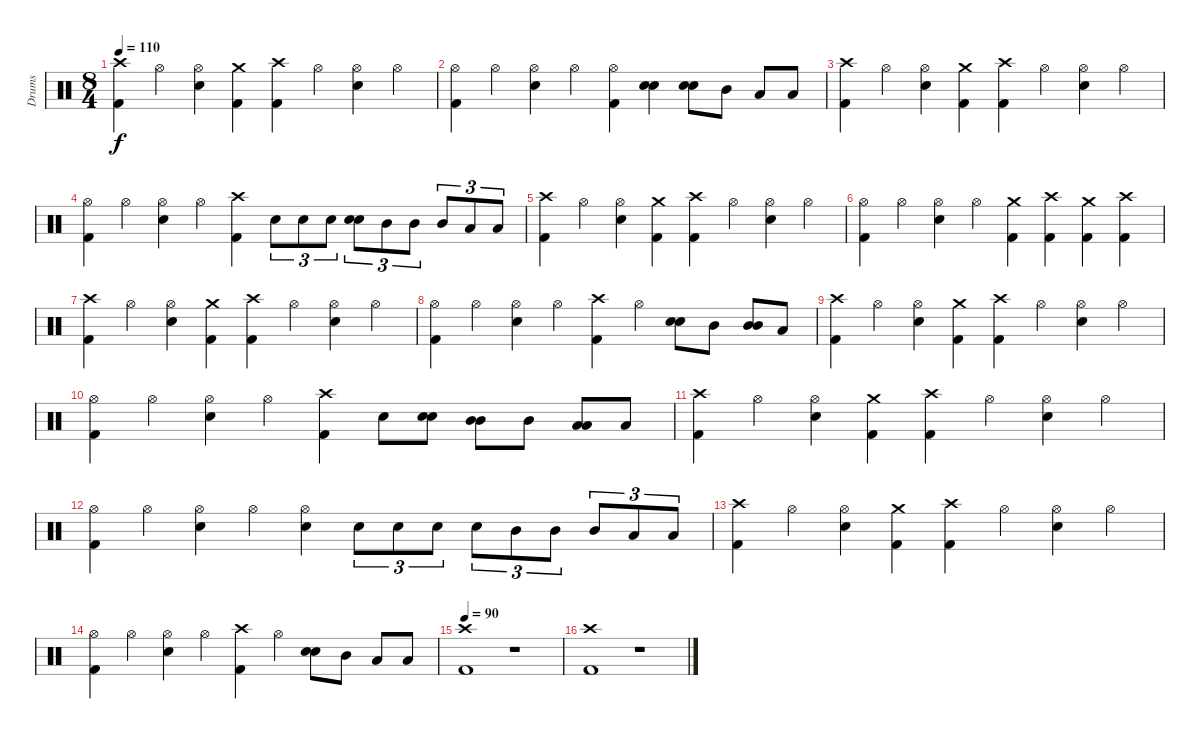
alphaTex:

\track ("Drums" "Drums") {instrument percussion}
\staff {score}
\articulation defaults
\ts (8 4)
\tempo 110
\clef neutral
\ks c
("Crash high (hit)" "Kick (hit) 2").4{dy f} "Hi-Hat (open)".4 ("Hi-Hat (open)" "Electric Snare (hit)").4 ("Crash medium (hit)" "Kick (hit) 2").4 ("Crash high (hit)" "Kick (hit) 2").4 "Hi-Hat (open)".4 ("Hi-Hat (open)" "Electric Snare (hit)").4 "Hi-Hat (open)".4 |
("Hi-Hat (open)" "Kick (hit) 2").4 "Hi-Hat (open)".4 ("Hi-Hat (open)" "Electric Snare (hit)").4 "Hi-Hat (open)".4 ("Hi-Hat (open)" "Kick (hit) 2").4 ("Electric Snare (hit)" "Electric Snare (hit)").4{bu 60} ("Electric Snare (hit)" "Electric Snare (hit)").8{bu 60} "Mid Tom (hit)".8 "Low Tom (hit)".8 "Low Tom (hit)".8 |
("Crash high (hit)" "Kick (hit) 2").4 "Hi-Hat (open)".4 ("Hi-Hat (open)" "Electric Snare (hit)").4 ("Crash medium (hit)" "Kick (hit) 2").4 ("Crash high (hit)" "Kick (hit) 2").4 "Hi-Hat (open)".4 ("Hi-Hat (open)" "Electric Snare (hit)").4 "Hi-Hat (open)".4 |
("Hi-Hat (open)" "Kick (hit) 2").4 "Hi-Hat (open)".4 ("Hi-Hat (open)" "Electric Snare (hit)").4 "Hi-Hat (open)".4 ("Crash high (hit)" "Kick (hit) 2").4 "Electric Snare (hit)".8{tu (3 2)} "Electric Snare (hit)".8{tu (3 2)} "Electric Snare (hit)".8{tu (3 2)} ("Electric Snare (hit)" "Electric Snare (hit)").8{tu (3 2) bu 60} "Mid Tom (hit)".8{tu (3 2)} "Mid Tom (hit)".8{tu (3 2)} "Mid Tom (hit)".8{tu (3 2)} "Low Tom (hit)".8{tu (3 2)} "Low Tom (hit)".8{tu (3 2)} |
("Crash high (hit)" "Kick (hit) 2").4 "Hi-Hat (open)".4 ("Hi-Hat (open)" "Electric Snare (hit)").4 ("Crash medium (hit)" "Kick (hit) 2").4 ("Crash high (hit)" "Kick (hit) 2").4 "Hi-Hat (open)".4 ("Hi-Hat (open)" "Electric Snare (hit)").4 "Hi-Hat (open)".4 |
("Hi-Hat (open)" "Kick (hit) 2").4 "Hi-Hat (open)".4 ("Hi-Hat (open)" "Electric Snare (hit)").4 "Hi-Hat (open)".4 ("Crash medium (hit)" "Kick (hit) 2").4 ("Crash high (hit)" "Kick (hit) 2").4 ("Crash medium (hit)" "Kick (hit) 2").4 ("Crash high (hit)" "Kick (hit) 2").4 |
("Crash high (hit)" "Kick (hit) 2").4 "Hi-Hat (open)".4 ("Hi-Hat (open)" "Electric Snare (hit)").4 ("Crash medium (hit)" "Kick (hit) 2").4 ("Crash high (hit)" "Kick (hit) 2").4 "Hi-Hat (open)".4 ("Hi-Hat (open)" "Electric Snare (hit)").4 "Hi-Hat (open)".4 |
("Hi-Hat (open)" "Kick (hit) 2").4 "Hi-Hat (open)".4 ("Hi-Hat (open)" "Electric Snare (hit)").4 "Hi-Hat (open)".4 ("Crash high (hit)" "Kick (hit) 2").4 "Hi-Hat (open)".4 ("Electric Snare (hit)" "Electric Snare (hit)").8{bu 60} "Mid Tom (hit)".8 ("Mid Tom (hit)" "Mid Tom (hit)").8{bu 60} "Low Tom (hit)".8 |
("Crash high (hit)" "Kick (hit) 2").4 "Hi-Hat (open)".4 ("Hi-Hat (open)" "Electric Snare (hit)").4 ("Crash medium (hit)" "Kick (hit) 2").4 ("Crash high (hit)" "Kick (hit) 2").4 "Hi-Hat (open)".4 ("Hi-Hat (open)" "Electric Snare (hit)").4 "Hi-Hat (open)".4 |
("Hi-Hat (open)" "Kick (hit) 2").4 "Hi-Hat (open)".4 ("Hi-Hat (open)" "Electric Snare (hit)").4 "Hi-Hat (open)".4 ("Crash high (hit)" "Kick (hit) 2").4 "Electric Snare (hit)".8 ("Electric Snare (hit)" "Electric Snare (hit)").8{bu 60} ("Mid Tom (hit)" "Mid Tom (hit)").8{bu 60} "Mid Tom (hit)".8 ("Low Tom (hit)" "Low Tom (hit)").8{bu 60} "Low Tom (hit)".8 |
("Crash high (hit)" "Kick (hit) 2").4 "Hi-Hat (open)".4 ("Hi-Hat (open)" "Electric Snare (hit)").4 ("Crash medium (hit)" "Kick (hit) 2").4 ("Crash high (hit)" "Kick (hit) 2").4 "Hi-Hat (open)".4 ("Hi-Hat (open)" "Electric Snare (hit)").4 "Hi-Hat (open)".4 |
("Hi-Hat (open)" "Kick (hit) 2").4 "Hi-Hat (open)".4 ("Hi-Hat (open)" "Electric Snare (hit)").4 "Hi-Hat (open)".4 ("Hi-Hat (open)" "Electric Snare (hit)").4 "Electric Snare (hit)".8{tu (3 2)} "Electric Snare (hit)".8{tu (3 2)} "Electric Snare (hit)".8{tu (3 2)} "Electric Snare (hit)".8{tu (3 2)} "Mid Tom (hit)".8{tu (3 2)} "Mid Tom (hit)".8{tu (3 2)} "Mid Tom (hit)".8{tu (3 2)} "Low Tom (hit)".8{tu (3 2)} "Low Tom (hit)".8{tu (3 2)} |
("Crash high (hit)" "Kick (hit) 2").4 "Hi-Hat (open)".4 ("Hi-Hat (open)" "Electric Snare (hit)").4 ("Crash medium (hit)" "Kick (hit) 2").4 ("Crash high (hit)" "Kick (hit) 2").4 "Hi-Hat (open)".4 ("Hi-Hat (open)" "Electric Snare (hit)").4 "Hi-Hat (open)".4 |
("Hi-Hat (open)" "Kick (hit) 2").4 "Hi-Hat (open)".4 ("Hi-Hat (open)" "Electric Snare (hit)").4 "Hi-Hat (open)".4 ("Crash high (hit)" "Kick (hit) 2").4 "Hi-Hat (open)".4 ("Electric Snare (hit)" "Electric Snare (hit)").8{bu 60} "Mid Tom (hit)".8 "Low Tom (hit)".8 "Low Tom (hit)".8 |
\tempo 90
("Crash high (hit)" "Kick (hit) 2").1 r.1 |
("Crash high (hit)" "Kick (hit) 2").1 r.1
